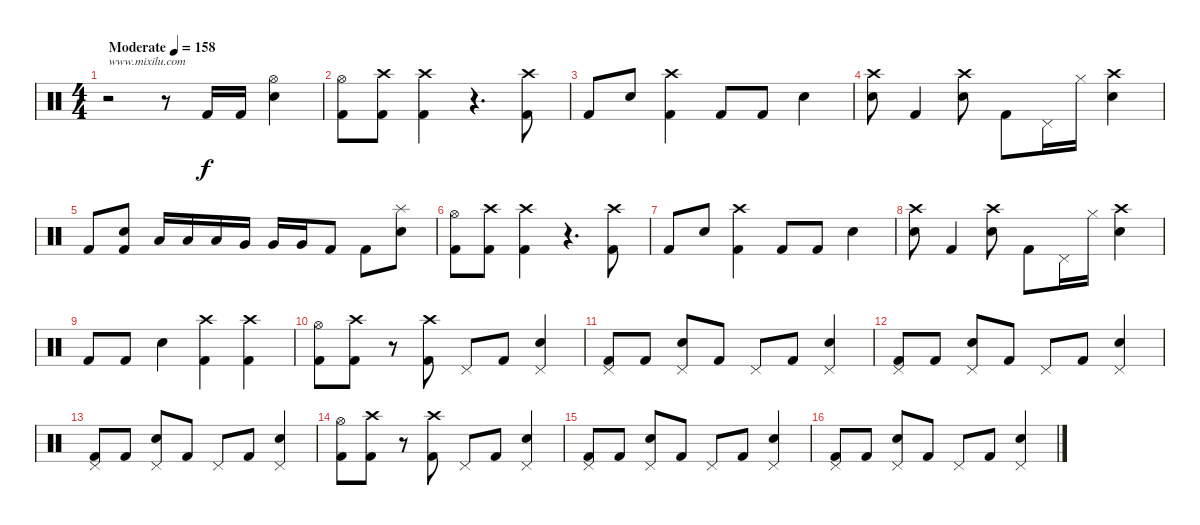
\track "" {instrument percussion}
\staff {score}
\articulation defaults
\ts (4 4)
\tempo (158 "Moderate")
\clef neutral
\ks c
r.2{txt "www.mixilu.com" dy f} r.8 "Kick (hit) 2".16 "Kick (hit) 2".16 ("Hi-Hat (open)" "Electric Snare (hit)").4 |
("Hi-Hat (open)" "Kick (hit) 2").8 ("Crash high (hit)" "Kick (hit) 2").8 ("Crash high (hit)" "Kick (hit) 2").4 r.4{d} ("Crash high (hit)" "Kick (hit) 2").8 |
"Kick (hit) 2".8 "Electric Snare (hit)".8 ("Crash high (hit)" "Kick (hit) 2").4 "Kick (hit) 2".8 "Kick (hit) 2".8 "Electric Snare (hit)".4 |
("Crash high (hit)" "Electric Snare (hit)").8 "Kick (hit) 2".4 ("Crash high (hit)" "Electric Snare (hit)").8 "Kick (hit) 2".8 "Pedal Hi-Hat (hit)".16 "Hi-Hat (closed)".16 ("Crash high (hit)" "Electric Snare (hit)").4 |
"Kick (hit) 2".8 ("Electric Snare (hit)" "Kick (hit) 2").8 "Low Floor Tom (hit)".16 "Low Floor Tom (hit)".16 "Low Floor Tom (hit)".16 "Very Low Tom (hit)".16 "Very Low Tom (hit)".16 "Very Low Tom (hit)".16 "Kick (hit) 2".8 "Kick (hit) 2".8 ("Splash (hit)" "Electric Snare (hit)").8 |
("Hi-Hat (open)" "Kick (hit) 2").8 ("Crash high (hit)" "Kick (hit) 2").8 ("Crash high (hit)" "Kick (hit) 2").4 r.4{d} ("Crash high (hit)" "Kick (hit) 2").8 |
"Kick (hit) 2".8 "Electric Snare (hit)".8 ("Crash high (hit)" "Kick (hit) 2").4 "Kick (hit) 2".8 "Kick (hit) 2".8 "Electric Snare (hit)".4 |
("Crash high (hit)" "Electric Snare (hit)").8 "Kick (hit) 2".4 ("Crash high (hit)" "Electric Snare (hit)").8 "Kick (hit) 2".8 "Pedal Hi-Hat (hit)".16 "Hi-Hat (closed)".16 ("Crash high (hit)" "Electric Snare (hit)").4 |
"Kick (hit) 2".8 "Kick (hit) 2".8 "Electric Snare (hit)".4 ("Crash high (hit)" "Kick (hit) 2").4 ("Crash high (hit)" "Kick (hit) 2").4 |
("Hi-Hat (open)" "Kick (hit) 2").8 ("Crash high (hit)" "Kick (hit) 2").8 r.8 ("Crash high (hit)" "Kick (hit) 2").8 "Pedal Hi-Hat (hit)".8 "Kick (hit) 2".8 ("Pedal Hi-Hat (hit)" "Electric Snare (hit)").4 |
("Pedal Hi-Hat (hit)" "Kick (hit) 2").8 "Kick (hit) 2".8 ("Pedal Hi-Hat (hit)" "Electric Snare (hit)").8 "Kick (hit) 2".8 "Pedal Hi-Hat (hit)".8 "Kick (hit) 2".8 ("Pedal Hi-Hat (hit)" "Electric Snare (hit)").4 |
("Pedal Hi-Hat (hit)" "Kick (hit) 2").8 "Kick (hit) 2".8 ("Pedal Hi-Hat (hit)" "Electric Snare (hit)").8 "Kick (hit) 2".8 "Pedal Hi-Hat (hit)".8 "Kick (hit) 2".8 ("Pedal Hi-Hat (hit)" "Electric Snare (hit)").4 |
("Pedal Hi-Hat (hit)" "Kick (hit) 2").8 "Kick (hit) 2".8 ("Pedal Hi-Hat (hit)" "Electric Snare (hit)").8 "Kick (hit) 2".8 "Pedal Hi-Hat (hit)".8 "Kick (hit) 2".8 ("Pedal Hi-Hat (hit)" "Electric Snare (hit)").4 |
("Hi-Hat (open)" "Kick (hit) 2").8 ("Crash high (hit)" "Kick (hit) 2").8 r.8 ("Crash high (hit)" "Kick (hit) 2").8 "Pedal Hi-Hat (hit)".8 "Kick (hit) 2".8 ("Pedal Hi-Hat (hit)" "Electric Snare (hit)").4 |
("Pedal Hi-Hat (hit)" "Kick (hit) 2").8 "Kick (hit) 2".8 ("Pedal Hi-Hat (hit)" "Electric Snare (hit)").8 "Kick (hit) 2".8 "Pedal Hi-Hat (hit)".8 "Kick (hit) 2".8 ("Pedal Hi-Hat (hit)" "Electric Snare (hit)").4 |
("Pedal Hi-Hat (hit)" "Kick (hit) 2").8 "Kick (hit) 2".8 ("Pedal Hi-Hat (hit)" "Electric Snare (hit)").8 "Kick (hit) 2".8 "Pedal Hi-Hat (hit)".8 "Kick (hit) 2".8 ("Pedal Hi-Hat (hit)" "Electric Snare (hit)").4
